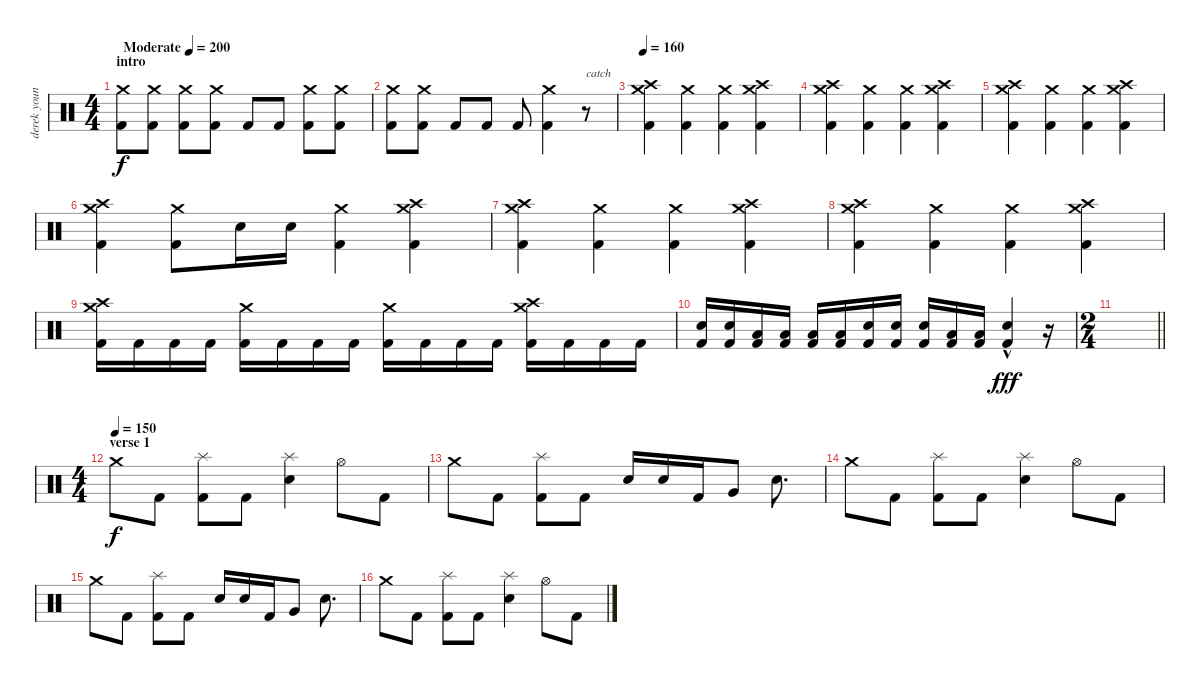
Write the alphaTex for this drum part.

\track ("derek youngsman" "derek youn") {instrument percussion}
\staff {score}
\articulation defaults
\ts (4 4)
\section ("" "intro")
\tempo (200 "Moderate")
\clef neutral
\ks c
("Crash medium (hit)" "Kick (hit) 2").8{dy f} ("Crash medium (hit)" "Kick (hit) 2").8 ("Crash medium (hit)" "Kick (hit) 2").8 ("Crash medium (hit)" "Kick (hit) 2").8 "Kick (hit) 2".8 "Kick (hit) 2".8 ("Crash medium (hit)" "Kick (hit) 2").8 ("Crash medium (hit)" "Kick (hit) 2").8 |
("Crash medium (hit)" "Kick (hit) 2").8 ("Crash medium (hit)" "Kick (hit) 2").8 "Kick (hit) 2".8 "Kick (hit) 2".8 "Kick (hit) 2".8 ("Crash medium (hit)" "Kick (hit) 2").4 r.8{txt "catch" volume 0} |
\tempo 160
("Crash medium (hit)" "Crash high (hit)" "Kick (hit) 2").4{volume 15} ("Crash medium (hit)" "Kick (hit) 2").4 ("Crash medium (hit)" "Kick (hit) 2").4 ("Crash medium (hit)" "Crash high (hit)" "Kick (hit) 2").4 |
("Crash medium (hit)" "Crash high (hit)" "Kick (hit) 2").4 ("Crash medium (hit)" "Kick (hit) 2").4 ("Crash medium (hit)" "Kick (hit) 2").4 ("Crash medium (hit)" "Crash high (hit)" "Kick (hit) 2").4 |
("Crash medium (hit)" "Crash high (hit)" "Kick (hit) 2").4 ("Crash medium (hit)" "Kick (hit) 2").4 ("Crash medium (hit)" "Kick (hit) 2").4 ("Crash medium (hit)" "Crash high (hit)" "Kick (hit) 2").4 |
("Crash medium (hit)" "Crash high (hit)" "Kick (hit) 2").4 ("Crash medium (hit)" "Kick (hit) 2").8 "Snare (hit) 2".16 "Snare (hit) 2".16 ("Crash medium (hit)" "Kick (hit) 2").4 ("Crash medium (hit)" "Crash high (hit)" "Kick (hit) 2").4 |
("Crash medium (hit)" "Crash high (hit)" "Kick (hit) 2").4 ("Crash medium (hit)" "Kick (hit) 2").4 ("Crash medium (hit)" "Kick (hit) 2").4 ("Crash medium (hit)" "Crash high (hit)" "Kick (hit) 2").4 |
("Crash medium (hit)" "Crash high (hit)" "Kick (hit) 2").4 ("Crash medium (hit)" "Kick (hit) 2").4 ("Crash medium (hit)" "Kick (hit) 2").4 ("Crash medium (hit)" "Crash high (hit)" "Kick (hit) 2").4 |
("Crash medium (hit)" "Crash high (hit)" "Kick (hit) 2").16 "Kick (hit) 2".16 "Kick (hit) 2".16 "Kick (hit) 2".16 ("Crash medium (hit)" "Kick (hit) 2").16 "Kick (hit) 2".16 "Kick (hit) 2".16 "Kick (hit) 2".16 ("Crash medium (hit)" "Kick (hit) 2").16 "Kick (hit) 2".16 "Kick (hit) 2".16 "Kick (hit) 2".16 ("Crash medium (hit)" "Crash high (hit)" "Kick (hit) 2").16 "Kick (hit) 2".16 "Kick (hit) 2".16 "Kick (hit) 2".16 |
("Snare (hit) 2" "Kick (hit) 2").16 ("Snare (hit) 2" "Kick (hit) 2").16 ("Low Tom (hit)" "Kick (hit) 2").16 ("Low Tom (hit)" "Kick (hit) 2").16 ("Low Tom (hit)" "Kick (hit) 2").16 ("Low Tom (hit)" "Kick (hit) 2").16 ("Snare (hit) 2" "Kick (hit) 2").16 ("Snare (hit) 2" "Kick (hit) 2").16 ("Snare (hit) 2" "Kick (hit) 2").16 ("Low Tom (hit)" "Kick (hit) 2").16 ("Low Tom (hit)" "Kick (hit) 2").16 ("Snare (hit) 2"{hac} "Kick (hit) 2").4{dy fff} r.16 |
\ts (2 4)
\barLineRight lightlight
|
\ts (4 4)
\section ("" "verse 1")
\tempo (150)
"Crash medium (hit)".8{dy f} "Kick (hit) 2".8 ("Splash (hit)" "Kick (hit) 2").8 "Kick (hit) 2".8 ("Splash (hit)" "Snare (hit) 2").4 "Hi-Hat (open)".8 "Kick (hit) 2".8 |
"Crash medium (hit)".8 "Kick (hit) 2".8 ("Splash (hit)" "Kick (hit) 2").8 "Kick (hit) 2".8 "Snare (hit) 2".16 "Snare (hit) 2".16 "Kick (hit) 2".16 "Very Low Tom (hit)".8 "Snare (hit) 2".8{d} |
"Crash medium (hit)".8 "Kick (hit) 2".8 ("Splash (hit)" "Kick (hit) 2").8 "Kick (hit) 2".8 ("Splash (hit)" "Snare (hit) 2").4 "Hi-Hat (open)".8 "Kick (hit) 2".8 |
"Crash medium (hit)".8 "Kick (hit) 2".8 ("Splash (hit)" "Kick (hit) 2").8 "Kick (hit) 2".8 "Snare (hit) 2".16 "Snare (hit) 2".16 "Kick (hit) 2".16 "Very Low Tom (hit)".8 "Snare (hit) 2".8{d} |
"Crash medium (hit)".8 "Kick (hit) 2".8 ("Splash (hit)" "Kick (hit) 2").8 "Kick (hit) 2".8 ("Splash (hit)" "Snare (hit) 2").4 "Hi-Hat (open)".8 "Kick (hit) 2".8
